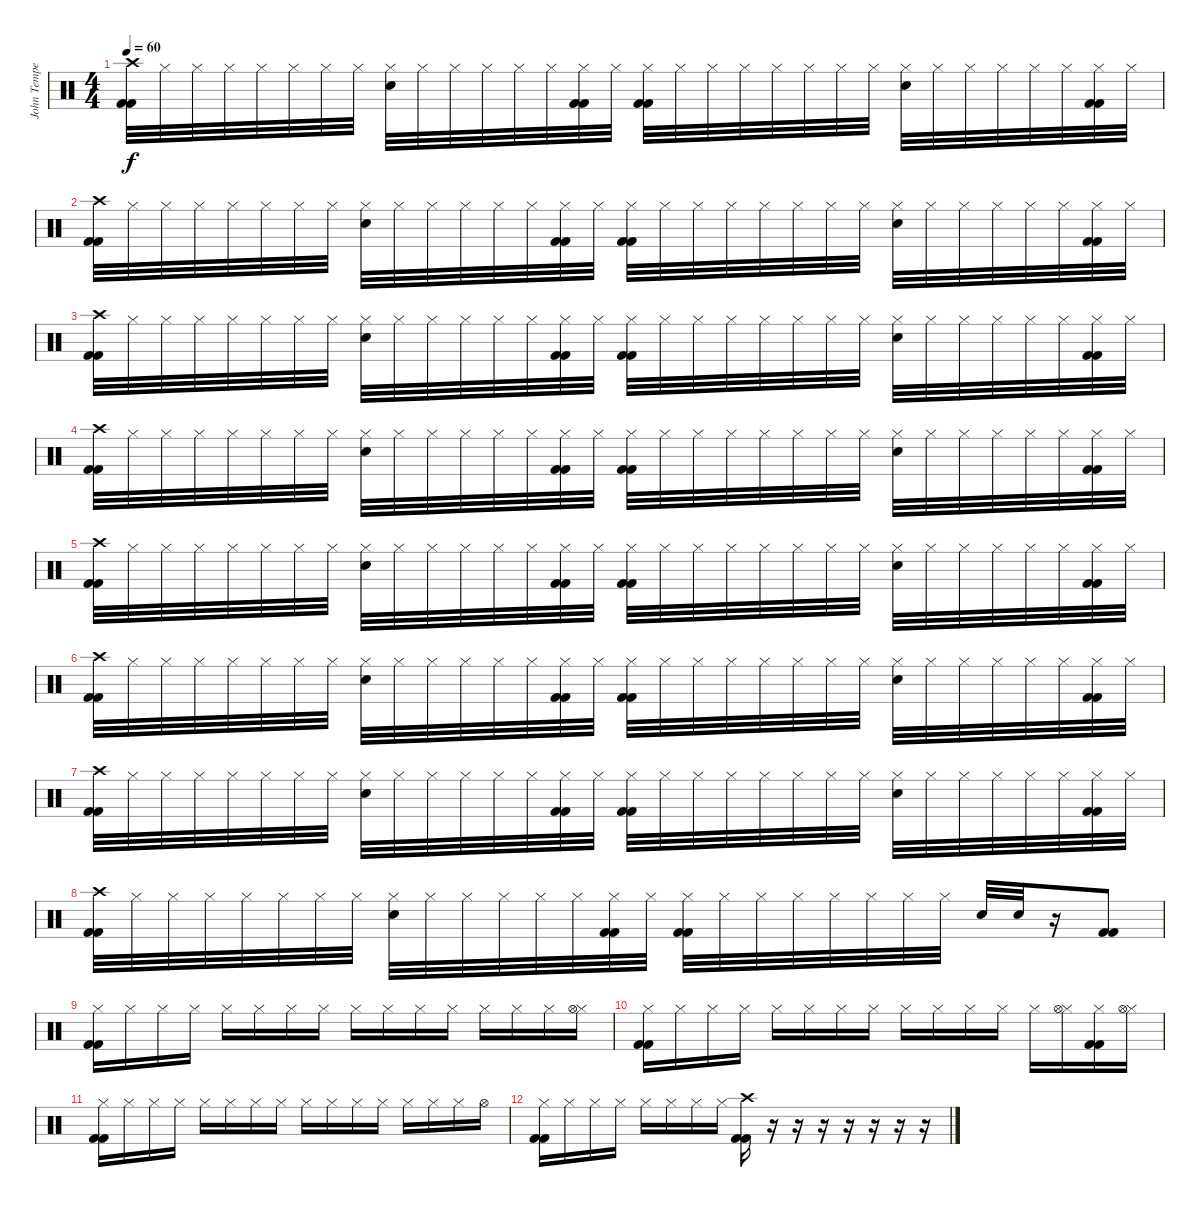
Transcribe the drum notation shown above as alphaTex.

\track ("John Tempesta" "John Tempe") {instrument percussion}
\staff {score}
\articulation defaults
\ts (4 4)
\tempo 60
\clef neutral
\ks c
("Crash high (hit)" "Kick (hit) 2" "Kick (hit) 2").32{dy f} "Hi-Hat (closed)".32 "Hi-Hat (closed)".32 "Hi-Hat (closed)".32 "Hi-Hat (closed)".32 "Hi-Hat (closed)".32 "Hi-Hat (closed)".32 "Hi-Hat (closed)".32 ("Hi-Hat (closed)" "Electric Snare (hit)").32 "Hi-Hat (closed)".32 "Hi-Hat (closed)".32 "Hi-Hat (closed)".32 "Hi-Hat (closed)".32 "Hi-Hat (closed)".32 ("Hi-Hat (closed)" "Kick (hit) 2" "Kick (hit) 2").32 "Hi-Hat (closed)".32 ("Hi-Hat (closed)" "Kick (hit) 2" "Kick (hit) 2").32 "Hi-Hat (closed)".32 "Hi-Hat (closed)".32 "Hi-Hat (closed)".32 "Hi-Hat (closed)".32 "Hi-Hat (closed)".32 "Hi-Hat (closed)".32 "Hi-Hat (closed)".32 ("Hi-Hat (closed)" "Electric Snare (hit)").32 "Hi-Hat (closed)".32 "Hi-Hat (closed)".32 "Hi-Hat (closed)".32 "Hi-Hat (closed)".32 "Hi-Hat (closed)".32 ("Hi-Hat (closed)" "Kick (hit) 2" "Kick (hit) 2").32 "Hi-Hat (closed)".32 |
("Crash high (hit)" "Kick (hit) 2" "Kick (hit) 2").32 "Hi-Hat (closed)".32 "Hi-Hat (closed)".32 "Hi-Hat (closed)".32 "Hi-Hat (closed)".32 "Hi-Hat (closed)".32 "Hi-Hat (closed)".32 "Hi-Hat (closed)".32 ("Hi-Hat (closed)" "Electric Snare (hit)").32 "Hi-Hat (closed)".32 "Hi-Hat (closed)".32 "Hi-Hat (closed)".32 "Hi-Hat (closed)".32 "Hi-Hat (closed)".32 ("Hi-Hat (closed)" "Kick (hit) 2" "Kick (hit) 2").32 "Hi-Hat (closed)".32 ("Hi-Hat (closed)" "Kick (hit) 2" "Kick (hit) 2").32 "Hi-Hat (closed)".32 "Hi-Hat (closed)".32 "Hi-Hat (closed)".32 "Hi-Hat (closed)".32 "Hi-Hat (closed)".32 "Hi-Hat (closed)".32 "Hi-Hat (closed)".32 ("Hi-Hat (closed)" "Electric Snare (hit)").32 "Hi-Hat (closed)".32 "Hi-Hat (closed)".32 "Hi-Hat (closed)".32 "Hi-Hat (closed)".32 "Hi-Hat (closed)".32 ("Hi-Hat (closed)" "Kick (hit) 2" "Kick (hit) 2").32 "Hi-Hat (closed)".32 |
("Crash high (hit)" "Kick (hit) 2" "Kick (hit) 2").32 "Hi-Hat (closed)".32 "Hi-Hat (closed)".32 "Hi-Hat (closed)".32 "Hi-Hat (closed)".32 "Hi-Hat (closed)".32 "Hi-Hat (closed)".32 "Hi-Hat (closed)".32 ("Hi-Hat (closed)" "Electric Snare (hit)").32 "Hi-Hat (closed)".32 "Hi-Hat (closed)".32 "Hi-Hat (closed)".32 "Hi-Hat (closed)".32 "Hi-Hat (closed)".32 ("Hi-Hat (closed)" "Kick (hit) 2" "Kick (hit) 2").32 "Hi-Hat (closed)".32 ("Hi-Hat (closed)" "Kick (hit) 2" "Kick (hit) 2").32 "Hi-Hat (closed)".32 "Hi-Hat (closed)".32 "Hi-Hat (closed)".32 "Hi-Hat (closed)".32 "Hi-Hat (closed)".32 "Hi-Hat (closed)".32 "Hi-Hat (closed)".32 ("Hi-Hat (closed)" "Electric Snare (hit)").32 "Hi-Hat (closed)".32 "Hi-Hat (closed)".32 "Hi-Hat (closed)".32 "Hi-Hat (closed)".32 "Hi-Hat (closed)".32 ("Hi-Hat (closed)" "Kick (hit) 2" "Kick (hit) 2").32 "Hi-Hat (closed)".32 |
("Crash high (hit)" "Kick (hit) 2" "Kick (hit) 2").32 "Hi-Hat (closed)".32 "Hi-Hat (closed)".32 "Hi-Hat (closed)".32 "Hi-Hat (closed)".32 "Hi-Hat (closed)".32 "Hi-Hat (closed)".32 "Hi-Hat (closed)".32 ("Hi-Hat (closed)" "Electric Snare (hit)").32 "Hi-Hat (closed)".32 "Hi-Hat (closed)".32 "Hi-Hat (closed)".32 "Hi-Hat (closed)".32 "Hi-Hat (closed)".32 ("Hi-Hat (closed)" "Kick (hit) 2" "Kick (hit) 2").32 "Hi-Hat (closed)".32 ("Hi-Hat (closed)" "Kick (hit) 2" "Kick (hit) 2").32 "Hi-Hat (closed)".32 "Hi-Hat (closed)".32 "Hi-Hat (closed)".32 "Hi-Hat (closed)".32 "Hi-Hat (closed)".32 "Hi-Hat (closed)".32 "Hi-Hat (closed)".32 ("Hi-Hat (closed)" "Electric Snare (hit)").32 "Hi-Hat (closed)".32 "Hi-Hat (closed)".32 "Hi-Hat (closed)".32 "Hi-Hat (closed)".32 "Hi-Hat (closed)".32 ("Hi-Hat (closed)" "Kick (hit) 2" "Kick (hit) 2").32 "Hi-Hat (closed)".32 |
("Crash high (hit)" "Kick (hit) 2" "Kick (hit) 2").32 "Hi-Hat (closed)".32 "Hi-Hat (closed)".32 "Hi-Hat (closed)".32 "Hi-Hat (closed)".32 "Hi-Hat (closed)".32 "Hi-Hat (closed)".32 "Hi-Hat (closed)".32 ("Hi-Hat (closed)" "Electric Snare (hit)").32 "Hi-Hat (closed)".32 "Hi-Hat (closed)".32 "Hi-Hat (closed)".32 "Hi-Hat (closed)".32 "Hi-Hat (closed)".32 ("Hi-Hat (closed)" "Kick (hit) 2" "Kick (hit) 2").32 "Hi-Hat (closed)".32 ("Hi-Hat (closed)" "Kick (hit) 2" "Kick (hit) 2").32 "Hi-Hat (closed)".32 "Hi-Hat (closed)".32 "Hi-Hat (closed)".32 "Hi-Hat (closed)".32 "Hi-Hat (closed)".32 "Hi-Hat (closed)".32 "Hi-Hat (closed)".32 ("Hi-Hat (closed)" "Electric Snare (hit)").32 "Hi-Hat (closed)".32 "Hi-Hat (closed)".32 "Hi-Hat (closed)".32 "Hi-Hat (closed)".32 "Hi-Hat (closed)".32 ("Hi-Hat (closed)" "Kick (hit) 2" "Kick (hit) 2").32 "Hi-Hat (closed)".32 |
("Crash high (hit)" "Kick (hit) 2" "Kick (hit) 2").32 "Hi-Hat (closed)".32 "Hi-Hat (closed)".32 "Hi-Hat (closed)".32 "Hi-Hat (closed)".32 "Hi-Hat (closed)".32 "Hi-Hat (closed)".32 "Hi-Hat (closed)".32 ("Hi-Hat (closed)" "Electric Snare (hit)").32 "Hi-Hat (closed)".32 "Hi-Hat (closed)".32 "Hi-Hat (closed)".32 "Hi-Hat (closed)".32 "Hi-Hat (closed)".32 ("Hi-Hat (closed)" "Kick (hit) 2" "Kick (hit) 2").32 "Hi-Hat (closed)".32 ("Hi-Hat (closed)" "Kick (hit) 2" "Kick (hit) 2").32 "Hi-Hat (closed)".32 "Hi-Hat (closed)".32 "Hi-Hat (closed)".32 "Hi-Hat (closed)".32 "Hi-Hat (closed)".32 "Hi-Hat (closed)".32 "Hi-Hat (closed)".32 ("Hi-Hat (closed)" "Electric Snare (hit)").32 "Hi-Hat (closed)".32 "Hi-Hat (closed)".32 "Hi-Hat (closed)".32 "Hi-Hat (closed)".32 "Hi-Hat (closed)".32 ("Hi-Hat (closed)" "Kick (hit) 2" "Kick (hit) 2").32 "Hi-Hat (closed)".32 |
("Crash high (hit)" "Kick (hit) 2" "Kick (hit) 2").32 "Hi-Hat (closed)".32 "Hi-Hat (closed)".32 "Hi-Hat (closed)".32 "Hi-Hat (closed)".32 "Hi-Hat (closed)".32 "Hi-Hat (closed)".32 "Hi-Hat (closed)".32 ("Hi-Hat (closed)" "Electric Snare (hit)").32 "Hi-Hat (closed)".32 "Hi-Hat (closed)".32 "Hi-Hat (closed)".32 "Hi-Hat (closed)".32 "Hi-Hat (closed)".32 ("Hi-Hat (closed)" "Kick (hit) 2" "Kick (hit) 2").32 "Hi-Hat (closed)".32 ("Hi-Hat (closed)" "Kick (hit) 2" "Kick (hit) 2").32 "Hi-Hat (closed)".32 "Hi-Hat (closed)".32 "Hi-Hat (closed)".32 "Hi-Hat (closed)".32 "Hi-Hat (closed)".32 "Hi-Hat (closed)".32 "Hi-Hat (closed)".32 ("Hi-Hat (closed)" "Electric Snare (hit)").32 "Hi-Hat (closed)".32 "Hi-Hat (closed)".32 "Hi-Hat (closed)".32 "Hi-Hat (closed)".32 "Hi-Hat (closed)".32 ("Hi-Hat (closed)" "Kick (hit) 2" "Kick (hit) 2").32 "Hi-Hat (closed)".32 |
("Crash high (hit)" "Kick (hit) 2" "Kick (hit) 2").32 "Hi-Hat (closed)".32 "Hi-Hat (closed)".32 "Hi-Hat (closed)".32 "Hi-Hat (closed)".32 "Hi-Hat (closed)".32 "Hi-Hat (closed)".32 "Hi-Hat (closed)".32 ("Hi-Hat (closed)" "Electric Snare (hit)").32 "Hi-Hat (closed)".32 "Hi-Hat (closed)".32 "Hi-Hat (closed)".32 "Hi-Hat (closed)".32 "Hi-Hat (closed)".32 ("Hi-Hat (closed)" "Kick (hit) 2" "Kick (hit) 2").32 "Hi-Hat (closed)".32 ("Hi-Hat (closed)" "Kick (hit) 2" "Kick (hit) 2").32 "Hi-Hat (closed)".32 "Hi-Hat (closed)".32 "Hi-Hat (closed)".32 "Hi-Hat (closed)".32 "Hi-Hat (closed)".32 "Hi-Hat (closed)".32 "Hi-Hat (closed)".32 "Electric Snare (hit)".32 "Electric Snare (hit)".32 r.16 ("Kick (hit) 2" "Kick (hit) 2").8 |
("Hi-Hat (closed)" "Kick (hit) 2" "Kick (hit) 2").16 "Hi-Hat (closed)".16 "Hi-Hat (closed)".16 "Hi-Hat (closed)".16 "Hi-Hat (closed)".16 "Hi-Hat (closed)".16 "Hi-Hat (closed)".16 "Hi-Hat (closed)".16 "Hi-Hat (closed)".16 "Hi-Hat (closed)".16 "Hi-Hat (closed)".16 "Hi-Hat (closed)".16 "Hi-Hat (closed)".16 "Hi-Hat (closed)".16 "Hi-Hat (closed)".16 ("Hi-Hat (closed)" "Hi-Hat (open)").16 |
("Hi-Hat (closed)" "Kick (hit) 2" "Kick (hit) 2").16 "Hi-Hat (closed)".16 "Hi-Hat (closed)".16 "Hi-Hat (closed)".16 "Hi-Hat (closed)".16 "Hi-Hat (closed)".16 "Hi-Hat (closed)".16 "Hi-Hat (closed)".16 "Hi-Hat (closed)".16 "Hi-Hat (closed)".16 "Hi-Hat (closed)".16 "Hi-Hat (closed)".16 "Hi-Hat (closed)".16 ("Hi-Hat (closed)" "Hi-Hat (open)").16 ("Hi-Hat (closed)" "Kick (hit) 2" "Kick (hit) 2").16 ("Hi-Hat (closed)" "Hi-Hat (open)").16 |
("Hi-Hat (closed)" "Kick (hit) 2" "Kick (hit) 2").16 "Hi-Hat (closed)".16 "Hi-Hat (closed)".16 "Hi-Hat (closed)".16 "Hi-Hat (closed)".16 "Hi-Hat (closed)".16 "Hi-Hat (closed)".16 "Hi-Hat (closed)".16 "Hi-Hat (closed)".16 "Hi-Hat (closed)".16 "Hi-Hat (closed)".16 "Hi-Hat (closed)".16 "Hi-Hat (closed)".16 "Hi-Hat (closed)".16 "Hi-Hat (closed)".16 "Hi-Hat (open)".16 |
("Hi-Hat (closed)" "Kick (hit) 2" "Kick (hit) 2").16 "Hi-Hat (closed)".16 "Hi-Hat (closed)".16 "Hi-Hat (closed)".16 "Hi-Hat (closed)".16 "Hi-Hat (closed)".16 "Hi-Hat (closed)".16 "Hi-Hat (closed)".16 ("Crash high (hit)" "Kick (hit) 2" "Kick (hit) 2").16 r.16 r.16 r.16 r.16 r.16 r.16 r.16
